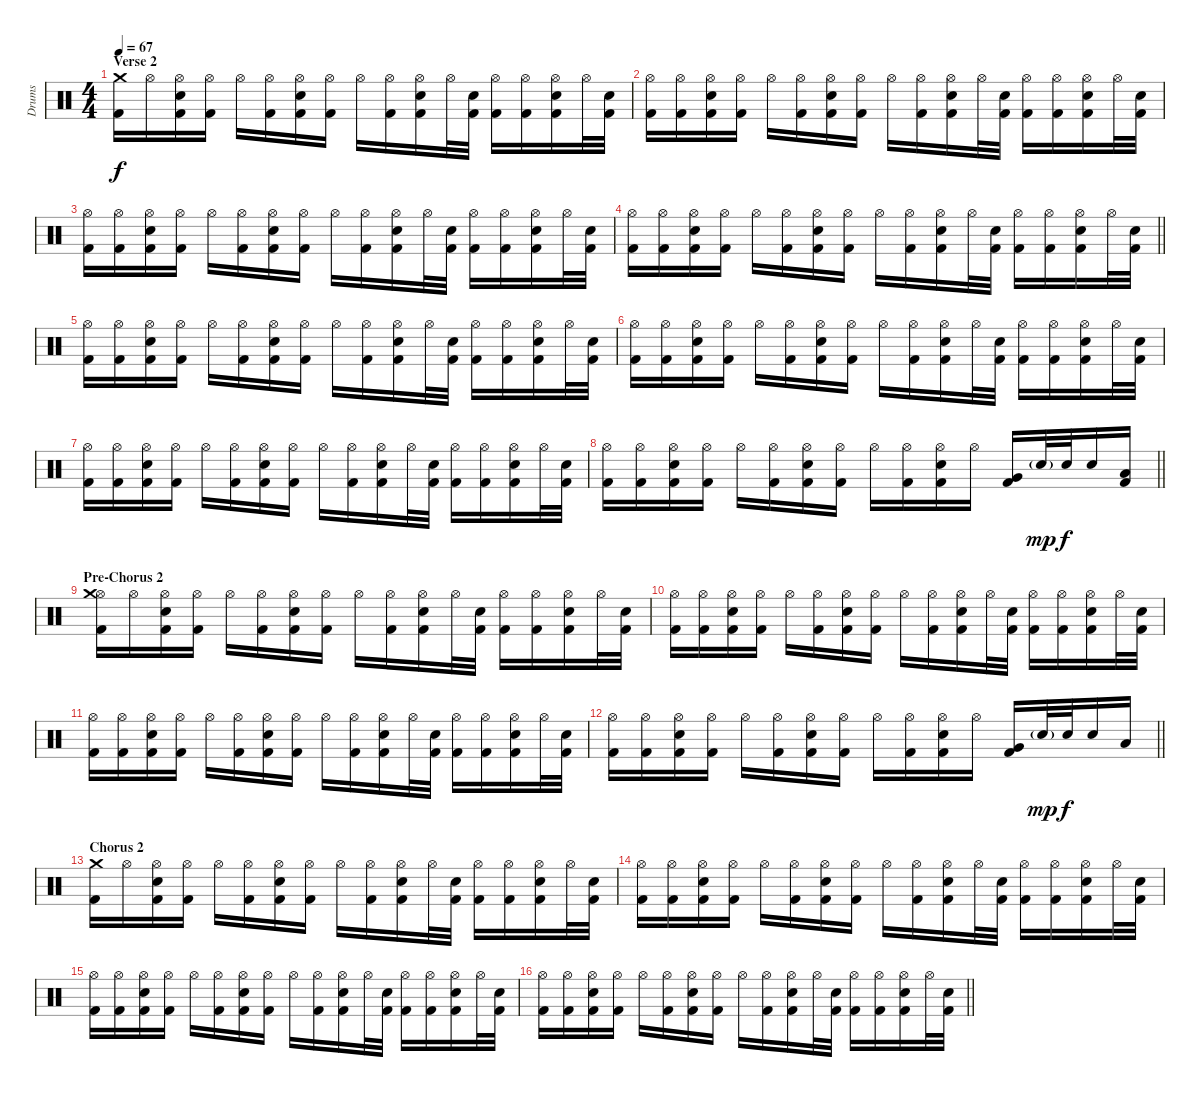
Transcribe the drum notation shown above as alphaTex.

\track ("Drums" "Drums") {instrument percussion}
\staff {score}
\articulation defaults
\ts (4 4)
\section ("" "Verse 2")
\tempo 67
\clef neutral
\ks c
("Kick (hit) 2" "Crash medium (hit)").16{dy f} "Hi-Hat (open)".16 ("Kick (hit) 2" "Snare (hit) 2" "Hi-Hat (open)").16 ("Kick (hit) 2" "Hi-Hat (open)").16 "Hi-Hat (open)".16 ("Kick (hit) 2" "Hi-Hat (open)").16 ("Kick (hit) 2" "Snare (hit) 2" "Hi-Hat (open)").16 ("Kick (hit) 2" "Hi-Hat (open)").16 "Hi-Hat (open)".16 ("Kick (hit) 2" "Hi-Hat (open)").16 ("Kick (hit) 2" "Snare (hit) 2" "Hi-Hat (open)").16 "Hi-Hat (open)".32 ("Kick (hit) 2" "Snare (hit) 2").32 ("Kick (hit) 2" "Hi-Hat (open)").16 ("Kick (hit) 2" "Hi-Hat (open)").16 ("Kick (hit) 2" "Snare (hit) 2" "Hi-Hat (open)").16 "Hi-Hat (open)".32 ("Kick (hit) 2" "Snare (hit) 2").32 |
("Kick (hit) 2" "Hi-Hat (open)").16 ("Kick (hit) 2" "Hi-Hat (open)").16 ("Kick (hit) 2" "Snare (hit) 2" "Hi-Hat (open)").16 ("Kick (hit) 2" "Hi-Hat (open)").16 "Hi-Hat (open)".16 ("Kick (hit) 2" "Hi-Hat (open)").16 ("Kick (hit) 2" "Snare (hit) 2" "Hi-Hat (open)").16 ("Kick (hit) 2" "Hi-Hat (open)").16 "Hi-Hat (open)".16 ("Kick (hit) 2" "Hi-Hat (open)").16 ("Kick (hit) 2" "Snare (hit) 2" "Hi-Hat (open)").16 "Hi-Hat (open)".32 ("Kick (hit) 2" "Snare (hit) 2").32 ("Kick (hit) 2" "Hi-Hat (open)").16 ("Kick (hit) 2" "Hi-Hat (open)").16 ("Kick (hit) 2" "Snare (hit) 2" "Hi-Hat (open)").16 "Hi-Hat (open)".32 ("Kick (hit) 2" "Snare (hit) 2").32 |
("Kick (hit) 2" "Hi-Hat (open)").16 ("Kick (hit) 2" "Hi-Hat (open)").16 ("Kick (hit) 2" "Snare (hit) 2" "Hi-Hat (open)").16 ("Kick (hit) 2" "Hi-Hat (open)").16 "Hi-Hat (open)".16 ("Kick (hit) 2" "Hi-Hat (open)").16 ("Kick (hit) 2" "Snare (hit) 2" "Hi-Hat (open)").16 ("Kick (hit) 2" "Hi-Hat (open)").16 "Hi-Hat (open)".16 ("Kick (hit) 2" "Hi-Hat (open)").16 ("Kick (hit) 2" "Snare (hit) 2" "Hi-Hat (open)").16 "Hi-Hat (open)".32 ("Kick (hit) 2" "Snare (hit) 2").32 ("Kick (hit) 2" "Hi-Hat (open)").16 ("Kick (hit) 2" "Hi-Hat (open)").16 ("Kick (hit) 2" "Snare (hit) 2" "Hi-Hat (open)").16 "Hi-Hat (open)".32 ("Kick (hit) 2" "Snare (hit) 2").32 |
\barLineRight lightlight
("Kick (hit) 2" "Hi-Hat (open)").16 ("Kick (hit) 2" "Hi-Hat (open)").16 ("Kick (hit) 2" "Snare (hit) 2" "Hi-Hat (open)").16 ("Kick (hit) 2" "Hi-Hat (open)").16 "Hi-Hat (open)".16 ("Kick (hit) 2" "Hi-Hat (open)").16 ("Kick (hit) 2" "Snare (hit) 2" "Hi-Hat (open)").16 ("Kick (hit) 2" "Hi-Hat (open)").16 "Hi-Hat (open)".16 ("Kick (hit) 2" "Hi-Hat (open)").16 ("Kick (hit) 2" "Snare (hit) 2" "Hi-Hat (open)").16 "Hi-Hat (open)".32 ("Kick (hit) 2" "Snare (hit) 2").32 ("Kick (hit) 2" "Hi-Hat (open)").16 ("Kick (hit) 2" "Hi-Hat (open)").16 ("Kick (hit) 2" "Snare (hit) 2" "Hi-Hat (open)").16 "Hi-Hat (open)".32 ("Kick (hit) 2" "Snare (hit) 2").32 |
("Kick (hit) 2" "Hi-Hat (open)").16 ("Kick (hit) 2" "Hi-Hat (open)").16 ("Kick (hit) 2" "Snare (hit) 2" "Hi-Hat (open)").16 ("Kick (hit) 2" "Hi-Hat (open)").16 "Hi-Hat (open)".16 ("Kick (hit) 2" "Hi-Hat (open)").16 ("Kick (hit) 2" "Snare (hit) 2" "Hi-Hat (open)").16 ("Kick (hit) 2" "Hi-Hat (open)").16 "Hi-Hat (open)".16 ("Kick (hit) 2" "Hi-Hat (open)").16 ("Kick (hit) 2" "Snare (hit) 2" "Hi-Hat (open)").16 "Hi-Hat (open)".32 ("Kick (hit) 2" "Snare (hit) 2").32 ("Kick (hit) 2" "Hi-Hat (open)").16 ("Kick (hit) 2" "Hi-Hat (open)").16 ("Kick (hit) 2" "Snare (hit) 2" "Hi-Hat (open)").16 "Hi-Hat (open)".32 ("Kick (hit) 2" "Snare (hit) 2").32 |
("Kick (hit) 2" "Hi-Hat (open)").16 ("Kick (hit) 2" "Hi-Hat (open)").16 ("Kick (hit) 2" "Snare (hit) 2" "Hi-Hat (open)").16 ("Kick (hit) 2" "Hi-Hat (open)").16 "Hi-Hat (open)".16 ("Kick (hit) 2" "Hi-Hat (open)").16 ("Kick (hit) 2" "Snare (hit) 2" "Hi-Hat (open)").16 ("Kick (hit) 2" "Hi-Hat (open)").16 "Hi-Hat (open)".16 ("Kick (hit) 2" "Hi-Hat (open)").16 ("Kick (hit) 2" "Snare (hit) 2" "Hi-Hat (open)").16 "Hi-Hat (open)".32 ("Kick (hit) 2" "Snare (hit) 2").32 ("Kick (hit) 2" "Hi-Hat (open)").16 ("Kick (hit) 2" "Hi-Hat (open)").16 ("Kick (hit) 2" "Snare (hit) 2" "Hi-Hat (open)").16 "Hi-Hat (open)".32 ("Kick (hit) 2" "Snare (hit) 2").32 |
("Kick (hit) 2" "Hi-Hat (open)").16 ("Kick (hit) 2" "Hi-Hat (open)").16 ("Kick (hit) 2" "Snare (hit) 2" "Hi-Hat (open)").16 ("Kick (hit) 2" "Hi-Hat (open)").16 "Hi-Hat (open)".16 ("Kick (hit) 2" "Hi-Hat (open)").16 ("Kick (hit) 2" "Snare (hit) 2" "Hi-Hat (open)").16 ("Kick (hit) 2" "Hi-Hat (open)").16 "Hi-Hat (open)".16 ("Kick (hit) 2" "Hi-Hat (open)").16 ("Kick (hit) 2" "Snare (hit) 2" "Hi-Hat (open)").16 "Hi-Hat (open)".32 ("Kick (hit) 2" "Snare (hit) 2").32 ("Kick (hit) 2" "Hi-Hat (open)").16 ("Kick (hit) 2" "Hi-Hat (open)").16 ("Kick (hit) 2" "Snare (hit) 2" "Hi-Hat (open)").16 "Hi-Hat (open)".32 ("Kick (hit) 2" "Snare (hit) 2").32 |
\barLineRight lightlight
("Kick (hit) 2" "Hi-Hat (open)").16 ("Kick (hit) 2" "Hi-Hat (open)").16 ("Kick (hit) 2" "Snare (hit) 2" "Hi-Hat (open)").16 ("Kick (hit) 2" "Hi-Hat (open)").16 "Hi-Hat (open)".16 ("Kick (hit) 2" "Hi-Hat (open)").16 ("Kick (hit) 2" "Snare (hit) 2" "Hi-Hat (open)").16 ("Kick (hit) 2" "Hi-Hat (open)").16 "Hi-Hat (open)".16 ("Kick (hit) 2" "Hi-Hat (open)").16 ("Kick (hit) 2" "Snare (hit) 2" "Hi-Hat (open)").16 "Hi-Hat (open)".16 ("Kick (hit) 2" "Very Low Tom (hit)").16 "Snare (hit) 2"{g}.32{dy mp} "Snare (hit) 2".32{dy f} "Snare (hit) 2".16 ("Kick (hit) 2" "Low Floor Tom (hit)").16 |
\section ("" "Pre-Chorus 2")
("Kick (hit) 2" "Hi-Hat (open)" "Crash medium (hit)").16 "Hi-Hat (open)".16 ("Kick (hit) 2" "Snare (hit) 2" "Hi-Hat (open)").16 ("Kick (hit) 2" "Hi-Hat (open)").16 "Hi-Hat (open)".16 ("Kick (hit) 2" "Hi-Hat (open)").16 ("Kick (hit) 2" "Snare (hit) 2" "Hi-Hat (open)").16 ("Kick (hit) 2" "Hi-Hat (open)").16 "Hi-Hat (open)".16 ("Kick (hit) 2" "Hi-Hat (open)").16 ("Kick (hit) 2" "Snare (hit) 2" "Hi-Hat (open)").16 "Hi-Hat (open)".32 ("Kick (hit) 2" "Snare (hit) 2").32 ("Kick (hit) 2" "Hi-Hat (open)").16 ("Kick (hit) 2" "Hi-Hat (open)").16 ("Kick (hit) 2" "Snare (hit) 2" "Hi-Hat (open)").16 "Hi-Hat (open)".32 ("Kick (hit) 2" "Snare (hit) 2").32 |
("Kick (hit) 2" "Hi-Hat (open)").16 ("Kick (hit) 2" "Hi-Hat (open)").16 ("Kick (hit) 2" "Snare (hit) 2" "Hi-Hat (open)").16 ("Kick (hit) 2" "Hi-Hat (open)").16 "Hi-Hat (open)".16 ("Kick (hit) 2" "Hi-Hat (open)").16 ("Kick (hit) 2" "Snare (hit) 2" "Hi-Hat (open)").16 ("Kick (hit) 2" "Hi-Hat (open)").16 "Hi-Hat (open)".16 ("Kick (hit) 2" "Hi-Hat (open)").16 ("Kick (hit) 2" "Snare (hit) 2" "Hi-Hat (open)").16 "Hi-Hat (open)".32 ("Kick (hit) 2" "Snare (hit) 2").32 ("Kick (hit) 2" "Hi-Hat (open)").16 ("Kick (hit) 2" "Hi-Hat (open)").16 ("Kick (hit) 2" "Snare (hit) 2" "Hi-Hat (open)").16 "Hi-Hat (open)".32 ("Kick (hit) 2" "Snare (hit) 2").32 |
("Kick (hit) 2" "Hi-Hat (open)").16 ("Kick (hit) 2" "Hi-Hat (open)").16 ("Kick (hit) 2" "Snare (hit) 2" "Hi-Hat (open)").16 ("Kick (hit) 2" "Hi-Hat (open)").16 "Hi-Hat (open)".16 ("Kick (hit) 2" "Hi-Hat (open)").16 ("Kick (hit) 2" "Snare (hit) 2" "Hi-Hat (open)").16 ("Kick (hit) 2" "Hi-Hat (open)").16 "Hi-Hat (open)".16 ("Kick (hit) 2" "Hi-Hat (open)").16 ("Kick (hit) 2" "Snare (hit) 2" "Hi-Hat (open)").16 "Hi-Hat (open)".32 ("Kick (hit) 2" "Snare (hit) 2").32 ("Kick (hit) 2" "Hi-Hat (open)").16 ("Kick (hit) 2" "Hi-Hat (open)").16 ("Kick (hit) 2" "Snare (hit) 2" "Hi-Hat (open)").16 "Hi-Hat (open)".32 ("Kick (hit) 2" "Snare (hit) 2").32 |
\barLineRight lightlight
("Kick (hit) 2" "Hi-Hat (open)").16 ("Kick (hit) 2" "Hi-Hat (open)").16 ("Kick (hit) 2" "Snare (hit) 2" "Hi-Hat (open)").16 ("Kick (hit) 2" "Hi-Hat (open)").16 "Hi-Hat (open)".16 ("Kick (hit) 2" "Hi-Hat (open)").16 ("Kick (hit) 2" "Snare (hit) 2" "Hi-Hat (open)").16 ("Kick (hit) 2" "Hi-Hat (open)").16 "Hi-Hat (open)".16 ("Kick (hit) 2" "Hi-Hat (open)").16 ("Kick (hit) 2" "Snare (hit) 2" "Hi-Hat (open)").16 "Hi-Hat (open)".16 ("Kick (hit) 2" "Very Low Tom (hit)").16 "Snare (hit) 2"{g}.32{dy mp} "Snare (hit) 2".32{dy f} "Snare (hit) 2".16 "Low Floor Tom (hit)".16 |
\section ("" "Chorus 2")
("Kick (hit) 2" "Crash medium (hit)").16 "Hi-Hat (open)".16 ("Kick (hit) 2" "Snare (hit) 2" "Hi-Hat (open)").16 ("Kick (hit) 2" "Hi-Hat (open)").16 "Hi-Hat (open)".16 ("Kick (hit) 2" "Hi-Hat (open)").16 ("Kick (hit) 2" "Snare (hit) 2" "Hi-Hat (open)").16 ("Kick (hit) 2" "Hi-Hat (open)").16 "Hi-Hat (open)".16 ("Kick (hit) 2" "Hi-Hat (open)").16 ("Kick (hit) 2" "Snare (hit) 2" "Hi-Hat (open)").16 "Hi-Hat (open)".32 ("Kick (hit) 2" "Snare (hit) 2").32 ("Kick (hit) 2" "Hi-Hat (open)").16 ("Kick (hit) 2" "Hi-Hat (open)").16 ("Kick (hit) 2" "Snare (hit) 2" "Hi-Hat (open)").16 "Hi-Hat (open)".32 ("Kick (hit) 2" "Snare (hit) 2").32 |
("Kick (hit) 2" "Hi-Hat (open)").16 ("Kick (hit) 2" "Hi-Hat (open)").16 ("Kick (hit) 2" "Snare (hit) 2" "Hi-Hat (open)").16 ("Kick (hit) 2" "Hi-Hat (open)").16 "Hi-Hat (open)".16 ("Kick (hit) 2" "Hi-Hat (open)").16 ("Kick (hit) 2" "Snare (hit) 2" "Hi-Hat (open)").16 ("Kick (hit) 2" "Hi-Hat (open)").16 "Hi-Hat (open)".16 ("Kick (hit) 2" "Hi-Hat (open)").16 ("Kick (hit) 2" "Snare (hit) 2" "Hi-Hat (open)").16 "Hi-Hat (open)".32 ("Kick (hit) 2" "Snare (hit) 2").32 ("Kick (hit) 2" "Hi-Hat (open)").16 ("Kick (hit) 2" "Hi-Hat (open)").16 ("Kick (hit) 2" "Snare (hit) 2" "Hi-Hat (open)").16 "Hi-Hat (open)".32 ("Kick (hit) 2" "Snare (hit) 2").32 |
("Kick (hit) 2" "Hi-Hat (open)").16 ("Kick (hit) 2" "Hi-Hat (open)").16 ("Kick (hit) 2" "Snare (hit) 2" "Hi-Hat (open)").16 ("Kick (hit) 2" "Hi-Hat (open)").16 "Hi-Hat (open)".16 ("Kick (hit) 2" "Hi-Hat (open)").16 ("Kick (hit) 2" "Snare (hit) 2" "Hi-Hat (open)").16 ("Kick (hit) 2" "Hi-Hat (open)").16 "Hi-Hat (open)".16 ("Kick (hit) 2" "Hi-Hat (open)").16 ("Kick (hit) 2" "Snare (hit) 2" "Hi-Hat (open)").16 "Hi-Hat (open)".32 ("Kick (hit) 2" "Snare (hit) 2").32 ("Kick (hit) 2" "Hi-Hat (open)").16 ("Kick (hit) 2" "Hi-Hat (open)").16 ("Kick (hit) 2" "Snare (hit) 2" "Hi-Hat (open)").16 "Hi-Hat (open)".32 ("Kick (hit) 2" "Snare (hit) 2").32 |
\barLineRight lightlight
("Kick (hit) 2" "Hi-Hat (open)").16 ("Kick (hit) 2" "Hi-Hat (open)").16 ("Kick (hit) 2" "Snare (hit) 2" "Hi-Hat (open)").16 ("Kick (hit) 2" "Hi-Hat (open)").16 "Hi-Hat (open)".16 ("Kick (hit) 2" "Hi-Hat (open)").16 ("Kick (hit) 2" "Snare (hit) 2" "Hi-Hat (open)").16 ("Kick (hit) 2" "Hi-Hat (open)").16 "Hi-Hat (open)".16 ("Kick (hit) 2" "Hi-Hat (open)").16 ("Kick (hit) 2" "Snare (hit) 2" "Hi-Hat (open)").16 "Hi-Hat (open)".32 ("Kick (hit) 2" "Snare (hit) 2").32 ("Kick (hit) 2" "Hi-Hat (open)").16 ("Kick (hit) 2" "Hi-Hat (open)").16 ("Kick (hit) 2" "Snare (hit) 2" "Hi-Hat (open)").16 "Hi-Hat (open)".32 ("Kick (hit) 2" "Snare (hit) 2").32
